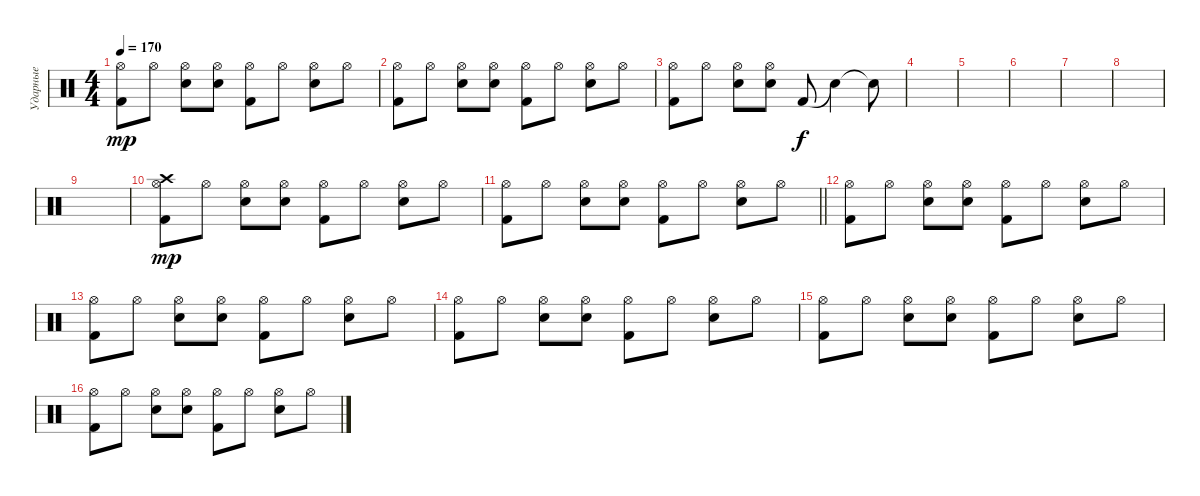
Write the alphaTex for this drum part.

\track ("Ударные" "Ударные") {instrument percussion}
\staff {score}
\articulation defaults
\ts (4 4)
\tempo 170
\clef neutral
\ks c
("Hi-Hat (open)" "Kick (hit) 2").8{dy mp} "Hi-Hat (open)".8 ("Hi-Hat (open)" "Electric Snare (hit)").8 ("Hi-Hat (open)" "Electric Snare (hit)").8 ("Hi-Hat (open)" "Kick (hit) 2").8 "Hi-Hat (open)".8 ("Hi-Hat (open)" "Electric Snare (hit)").8 "Hi-Hat (open)".8 |
("Hi-Hat (open)" "Kick (hit) 2").8 "Hi-Hat (open)".8 ("Hi-Hat (open)" "Electric Snare (hit)").8 ("Hi-Hat (open)" "Electric Snare (hit)").8 ("Hi-Hat (open)" "Kick (hit) 2").8 "Hi-Hat (open)".8 ("Hi-Hat (open)" "Electric Snare (hit)").8 "Hi-Hat (open)".8 |
("Hi-Hat (open)" "Kick (hit) 2").8 "Hi-Hat (open)".8 ("Hi-Hat (open)" "Electric Snare (hit)").8 ("Hi-Hat (open)" "Electric Snare (hit)").8 "Kick (hit) 2".8{dy f} "Snare (hit)"{t}.4 "Snare (hit)"{t}.8 |
|
|
|
|
|
|
("Crash high (hit)" "Hi-Hat (open)" "Kick (hit) 2").8{dy mp} "Hi-Hat (open)".8 ("Hi-Hat (open)" "Electric Snare (hit)").8 ("Hi-Hat (open)" "Electric Snare (hit)").8 ("Hi-Hat (open)" "Kick (hit) 2").8 "Hi-Hat (open)".8 ("Hi-Hat (open)" "Electric Snare (hit)").8 "Hi-Hat (open)".8 |
\barLineRight lightlight
("Hi-Hat (open)" "Kick (hit) 2").8 "Hi-Hat (open)".8 ("Hi-Hat (open)" "Electric Snare (hit)").8 ("Hi-Hat (open)" "Electric Snare (hit)").8 ("Hi-Hat (open)" "Kick (hit) 2").8 "Hi-Hat (open)".8 ("Hi-Hat (open)" "Electric Snare (hit)").8 "Hi-Hat (open)".8 |
("Hi-Hat (open)" "Kick (hit) 2").8 "Hi-Hat (open)".8 ("Hi-Hat (open)" "Electric Snare (hit)").8 ("Hi-Hat (open)" "Electric Snare (hit)").8 ("Hi-Hat (open)" "Kick (hit) 2").8 "Hi-Hat (open)".8 ("Hi-Hat (open)" "Electric Snare (hit)").8 "Hi-Hat (open)".8 |
("Hi-Hat (open)" "Kick (hit) 2").8 "Hi-Hat (open)".8 ("Hi-Hat (open)" "Electric Snare (hit)").8 ("Hi-Hat (open)" "Electric Snare (hit)").8 ("Hi-Hat (open)" "Kick (hit) 2").8 "Hi-Hat (open)".8 ("Hi-Hat (open)" "Electric Snare (hit)").8 "Hi-Hat (open)".8 |
("Hi-Hat (open)" "Kick (hit) 2").8 "Hi-Hat (open)".8 ("Hi-Hat (open)" "Electric Snare (hit)").8 ("Hi-Hat (open)" "Electric Snare (hit)").8 ("Hi-Hat (open)" "Kick (hit) 2").8 "Hi-Hat (open)".8 ("Hi-Hat (open)" "Electric Snare (hit)").8 "Hi-Hat (open)".8 |
("Hi-Hat (open)" "Kick (hit) 2").8 "Hi-Hat (open)".8 ("Hi-Hat (open)" "Electric Snare (hit)").8 ("Hi-Hat (open)" "Electric Snare (hit)").8 ("Hi-Hat (open)" "Kick (hit) 2").8 "Hi-Hat (open)".8 ("Hi-Hat (open)" "Electric Snare (hit)").8 "Hi-Hat (open)".8 |
("Hi-Hat (open)" "Kick (hit) 2").8 "Hi-Hat (open)".8 ("Hi-Hat (open)" "Electric Snare (hit)").8 ("Hi-Hat (open)" "Electric Snare (hit)").8 ("Hi-Hat (open)" "Kick (hit) 2").8 "Hi-Hat (open)".8 ("Hi-Hat (open)" "Electric Snare (hit)").8 "Hi-Hat (open)".8
